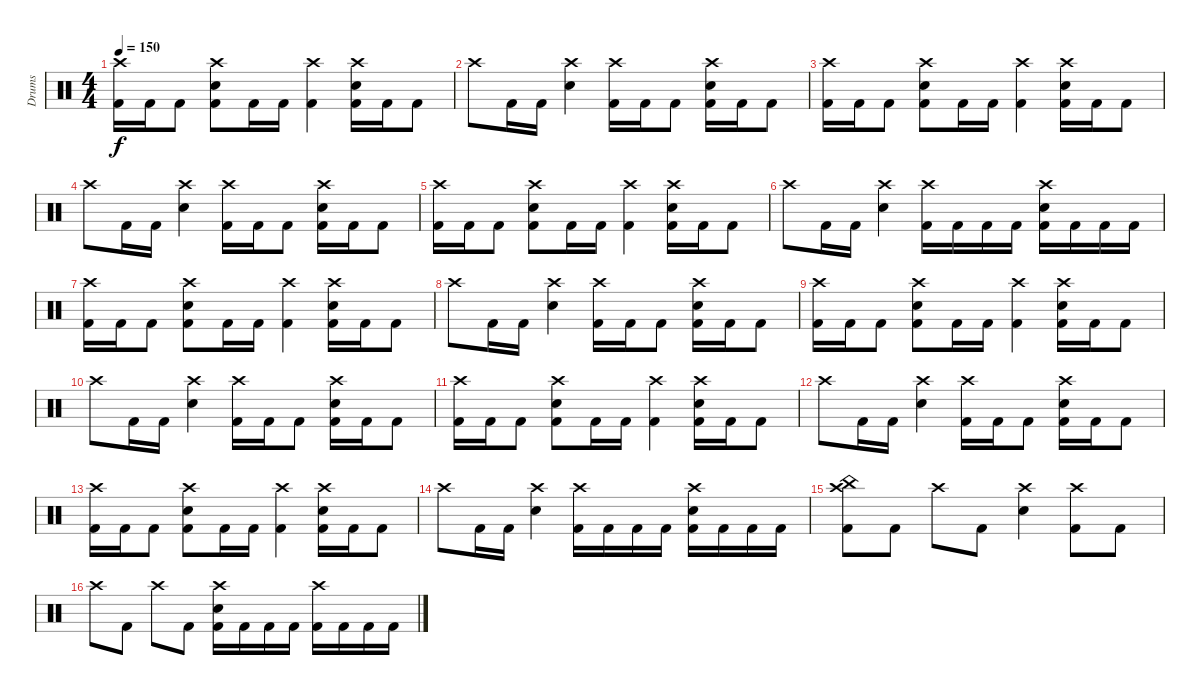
\track ("Drums" "Drums") {instrument percussion}
\staff {score}
\articulation defaults
\ts (4 4)
\tempo 150
\clef neutral
\ks c
("Crash high (hit)" "Kick (hit) 2").16{dy f} "Kick (hit) 2".16 "Kick (hit) 2".8 ("Kick (hit) 2" "Crash high (hit)" "Electric Snare (hit)").8 "Kick (hit) 2".16 "Kick (hit) 2".16 ("Crash high (hit)" "Kick (hit) 2").4 ("Kick (hit) 2" "Crash high (hit)" "Electric Snare (hit)").16 "Kick (hit) 2".16 "Kick (hit) 2".8 |
"Crash high (hit)".8 "Kick (hit) 2".16 "Kick (hit) 2".16 ("Crash high (hit)" "Electric Snare (hit)").4 ("Crash high (hit)" "Kick (hit) 2").16 "Kick (hit) 2".16 "Kick (hit) 2".8 ("Kick (hit) 2" "Crash high (hit)" "Electric Snare (hit)").16 "Kick (hit) 2".16 "Kick (hit) 2".8 |
("Crash high (hit)" "Kick (hit) 2").16 "Kick (hit) 2".16 "Kick (hit) 2".8 ("Kick (hit) 2" "Crash high (hit)" "Electric Snare (hit)").8 "Kick (hit) 2".16 "Kick (hit) 2".16 ("Crash high (hit)" "Kick (hit) 2").4 ("Kick (hit) 2" "Crash high (hit)" "Electric Snare (hit)").16 "Kick (hit) 2".16 "Kick (hit) 2".8 |
"Crash high (hit)".8 "Kick (hit) 2".16 "Kick (hit) 2".16 ("Crash high (hit)" "Electric Snare (hit)").4 ("Crash high (hit)" "Kick (hit) 2").16 "Kick (hit) 2".16 "Kick (hit) 2".8 ("Kick (hit) 2" "Crash high (hit)" "Electric Snare (hit)").16 "Kick (hit) 2".16 "Kick (hit) 2".8 |
("Crash high (hit)" "Kick (hit) 2").16 "Kick (hit) 2".16 "Kick (hit) 2".8 ("Kick (hit) 2" "Crash high (hit)" "Electric Snare (hit)").8 "Kick (hit) 2".16 "Kick (hit) 2".16 ("Crash high (hit)" "Kick (hit) 2").4 ("Kick (hit) 2" "Crash high (hit)" "Electric Snare (hit)").16 "Kick (hit) 2".16 "Kick (hit) 2".8 |
"Crash high (hit)".8 "Kick (hit) 2".16 "Kick (hit) 2".16 ("Crash high (hit)" "Electric Snare (hit)").4 ("Crash high (hit)" "Kick (hit) 2").16 "Kick (hit) 2".16 "Kick (hit) 2".16 "Kick (hit) 2".16 ("Crash high (hit)" "Electric Snare (hit)" "Kick (hit) 2").16 "Kick (hit) 2".16 "Kick (hit) 2".16 "Kick (hit) 2".16 |
("Crash high (hit)" "Kick (hit) 2").16 "Kick (hit) 2".16 "Kick (hit) 2".8 ("Kick (hit) 2" "Crash high (hit)" "Electric Snare (hit)").8 "Kick (hit) 2".16 "Kick (hit) 2".16 ("Crash high (hit)" "Kick (hit) 2").4 ("Kick (hit) 2" "Crash high (hit)" "Electric Snare (hit)").16 "Kick (hit) 2".16 "Kick (hit) 2".8 |
"Crash high (hit)".8 "Kick (hit) 2".16 "Kick (hit) 2".16 ("Crash high (hit)" "Electric Snare (hit)").4 ("Crash high (hit)" "Kick (hit) 2").16 "Kick (hit) 2".16 "Kick (hit) 2".8 ("Kick (hit) 2" "Crash high (hit)" "Electric Snare (hit)").16 "Kick (hit) 2".16 "Kick (hit) 2".8 |
("Crash high (hit)" "Kick (hit) 2").16 "Kick (hit) 2".16 "Kick (hit) 2".8 ("Kick (hit) 2" "Crash high (hit)" "Electric Snare (hit)").8 "Kick (hit) 2".16 "Kick (hit) 2".16 ("Crash high (hit)" "Kick (hit) 2").4 ("Kick (hit) 2" "Crash high (hit)" "Electric Snare (hit)").16 "Kick (hit) 2".16 "Kick (hit) 2".8 |
"Crash high (hit)".8 "Kick (hit) 2".16 "Kick (hit) 2".16 ("Crash high (hit)" "Electric Snare (hit)").4 ("Crash high (hit)" "Kick (hit) 2").16 "Kick (hit) 2".16 "Kick (hit) 2".8 ("Kick (hit) 2" "Crash high (hit)" "Electric Snare (hit)").16 "Kick (hit) 2".16 "Kick (hit) 2".8 |
("Crash high (hit)" "Kick (hit) 2").16 "Kick (hit) 2".16 "Kick (hit) 2".8 ("Kick (hit) 2" "Crash high (hit)" "Electric Snare (hit)").8 "Kick (hit) 2".16 "Kick (hit) 2".16 ("Crash high (hit)" "Kick (hit) 2").4 ("Kick (hit) 2" "Crash high (hit)" "Electric Snare (hit)").16 "Kick (hit) 2".16 "Kick (hit) 2".8 |
"Crash high (hit)".8 "Kick (hit) 2".16 "Kick (hit) 2".16 ("Crash high (hit)" "Electric Snare (hit)").4 ("Crash high (hit)" "Kick (hit) 2").16 "Kick (hit) 2".16 "Kick (hit) 2".8 ("Kick (hit) 2" "Crash high (hit)" "Electric Snare (hit)").16 "Kick (hit) 2".16 "Kick (hit) 2".8 |
("Crash high (hit)" "Kick (hit) 2").16 "Kick (hit) 2".16 "Kick (hit) 2".8 ("Kick (hit) 2" "Crash high (hit)" "Electric Snare (hit)").8 "Kick (hit) 2".16 "Kick (hit) 2".16 ("Crash high (hit)" "Kick (hit) 2").4 ("Kick (hit) 2" "Crash high (hit)" "Electric Snare (hit)").16 "Kick (hit) 2".16 "Kick (hit) 2".8 |
"Crash high (hit)".8 "Kick (hit) 2".16 "Kick (hit) 2".16 ("Crash high (hit)" "Electric Snare (hit)").4 ("Crash high (hit)" "Kick (hit) 2").16 "Kick (hit) 2".16 "Kick (hit) 2".16 "Kick (hit) 2".16 ("Crash high (hit)" "Electric Snare (hit)" "Kick (hit) 2").16 "Kick (hit) 2".16 "Kick (hit) 2".16 "Kick (hit) 2".16 |
("Crash high (hit)" "China (hit)" "Kick (hit) 2").8 "Kick (hit) 2".8 "Crash high (hit)".8 "Kick (hit) 2".8 ("Crash high (hit)" "Electric Snare (hit)").4 ("Crash high (hit)" "Kick (hit) 2").8 "Kick (hit) 2".8 |
"Crash high (hit)".8 "Kick (hit) 2".8 "Crash high (hit)".8 "Kick (hit) 2".8 ("Crash high (hit)" "Electric Snare (hit)" "Kick (hit) 2").16 "Kick (hit) 2".16 "Kick (hit) 2".16 "Kick (hit) 2".16 ("Crash high (hit)" "Kick (hit) 2").16 "Kick (hit) 2".16 "Kick (hit) 2".16 "Kick (hit) 2".16
